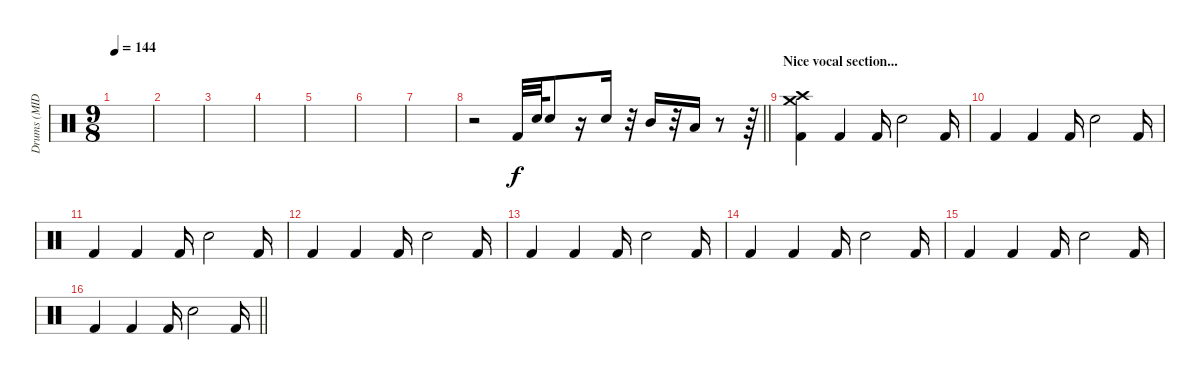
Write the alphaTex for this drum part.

\track ("Drums (MIDI!)" "Drums (MID") {instrument percussion}
\staff {score}
\articulation defaults
\ts (9 8)
\tempo 144
\clef neutral
\ks c
|
|
|
|
|
|
|
\barLineRight lightlight
r.2 "Kick (hit) 2".32{dy f} "Electric Snare (hit)".64 "Electric Snare (hit)".8 r.16 "Electric Snare (hit)".16 r.32 "Mid Tom (hit)".16 r.32 "Low Tom (hit)".16 r.8 r.64 |
\section ("" "Nice vocal section...")
("Crash medium (hit)" "Crash high (hit)" "Kick (hit) 2").4 "Kick (hit) 2".4 "Kick (hit) 2".16 "Electric Snare (hit)".2 "Kick (hit) 2".16 |
"Kick (hit) 2".4 "Kick (hit) 2".4 "Kick (hit) 2".16 "Electric Snare (hit)".2 "Kick (hit) 2".16 |
"Kick (hit) 2".4 "Kick (hit) 2".4 "Kick (hit) 2".16 "Electric Snare (hit)".2 "Kick (hit) 2".16 |
"Kick (hit) 2".4 "Kick (hit) 2".4 "Kick (hit) 2".16 "Electric Snare (hit)".2 "Kick (hit) 2".16 |
"Kick (hit) 2".4 "Kick (hit) 2".4 "Kick (hit) 2".16 "Electric Snare (hit)".2 "Kick (hit) 2".16 |
"Kick (hit) 2".4 "Kick (hit) 2".4 "Kick (hit) 2".16 "Electric Snare (hit)".2 "Kick (hit) 2".16 |
"Kick (hit) 2".4 "Kick (hit) 2".4 "Kick (hit) 2".16 "Electric Snare (hit)".2 "Kick (hit) 2".16 |
\barLineRight lightlight "Kick (hit) 2".4 "Kick (hit) 2".4 "Kick (hit) 2".16 "Electric Snare (hit)".2 "Kick (hit) 2".16
